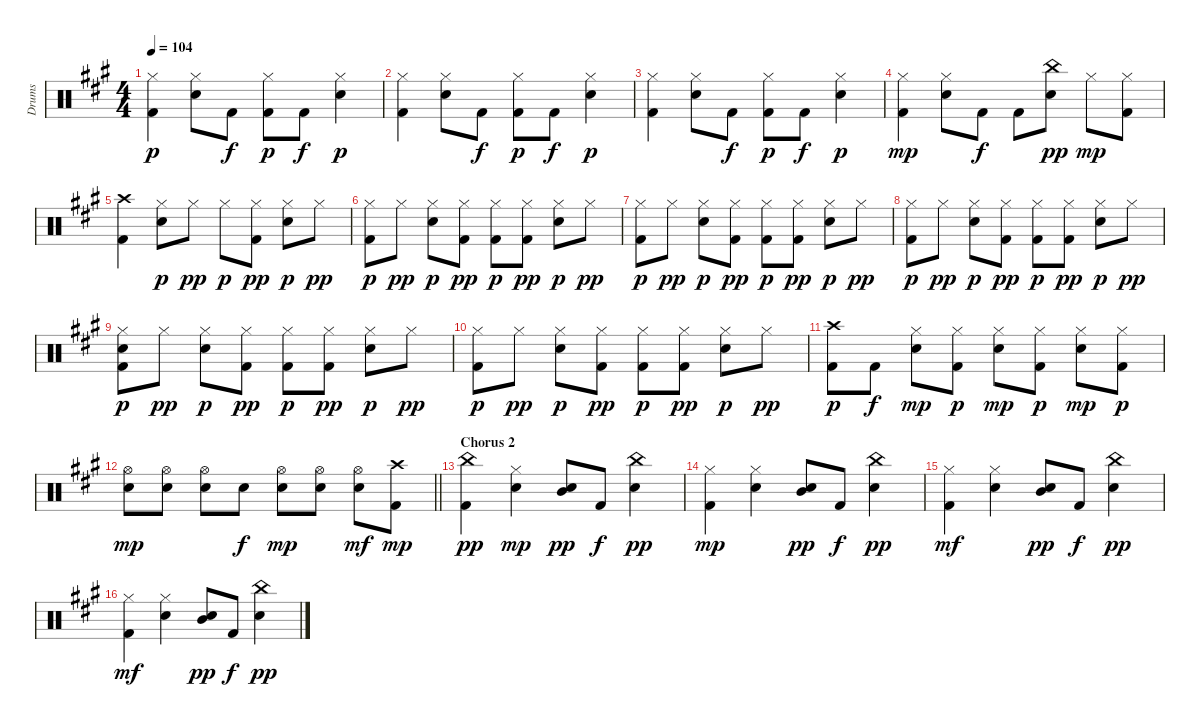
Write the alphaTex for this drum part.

\track ("Drums" "Drums") {instrument percussion}
\staff {score}
\articulation defaults
\ts (4 4)
\tempo 104
\clef neutral
\ks a
("Kick (hit) 2" "Hi-Hat (closed)").4{dy p} ("Electric Snare (hit)" "Hi-Hat (closed)").8 "Kick (hit) 2".8{dy f} ("Kick (hit) 2" "Hi-Hat (closed)").8{dy p} "Kick (hit) 2".8{dy f} ("Electric Snare (hit)" "Hi-Hat (closed)").4{dy p} |
("Kick (hit) 2" "Hi-Hat (closed)").4 ("Electric Snare (hit)" "Hi-Hat (closed)").8 "Kick (hit) 2".8{dy f} ("Kick (hit) 2" "Hi-Hat (closed)").8{dy p} "Kick (hit) 2".8{dy f} ("Electric Snare (hit)" "Hi-Hat (closed)").4{dy p} |
("Kick (hit) 2" "Hi-Hat (closed)").4 ("Electric Snare (hit)" "Hi-Hat (closed)").8 "Kick (hit) 2".8{dy f} ("Kick (hit) 2" "Hi-Hat (closed)").8{dy p} "Kick (hit) 2".8{dy f} ("Electric Snare (hit)" "Hi-Hat (closed)").4{dy p} |
("Kick (hit) 2" "Hi-Hat (closed)").4{dy mp} ("Electric Snare (hit)" "Hi-Hat (closed)").8 "Kick (hit) 2".8{dy f} "Kick (hit) 2".8 ("Electric Snare (hit)" "China (hit)").8{dy pp} "Hi-Hat (closed)".8{dy mp} ("Kick (hit) 2" "Hi-Hat (closed)").8 |
("Kick (hit) 2" "Crash high (hit)").4 ("Electric Snare (hit)" "Hi-Hat (closed)").8{dy p} "Hi-Hat (closed)".8{dy pp} "Hi-Hat (closed)".8{dy p} ("Kick (hit) 2" "Hi-Hat (closed)").8{dy pp} ("Electric Snare (hit)" "Hi-Hat (closed)").8{dy p} "Hi-Hat (closed)".8{dy pp} |
("Kick (hit) 2" "Hi-Hat (closed)").8{dy p} "Hi-Hat (closed)".8{dy pp} ("Electric Snare (hit)" "Hi-Hat (closed)").8{dy p} ("Kick (hit) 2" "Hi-Hat (closed)").8{dy pp} ("Kick (hit) 2" "Hi-Hat (closed)").8{dy p} ("Kick (hit) 2" "Hi-Hat (closed)").8{dy pp} ("Electric Snare (hit)" "Hi-Hat (closed)").8{dy p} "Hi-Hat (closed)".8{dy pp} |
("Kick (hit) 2" "Hi-Hat (closed)").8{dy p} "Hi-Hat (closed)".8{dy pp} ("Electric Snare (hit)" "Hi-Hat (closed)").8{dy p} ("Kick (hit) 2" "Hi-Hat (closed)").8{dy pp} ("Kick (hit) 2" "Hi-Hat (closed)").8{dy p} ("Kick (hit) 2" "Hi-Hat (closed)").8{dy pp} ("Electric Snare (hit)" "Hi-Hat (closed)").8{dy p} "Hi-Hat (closed)".8{dy pp} |
("Kick (hit) 2" "Hi-Hat (closed)").8{dy p} "Hi-Hat (closed)".8{dy pp} ("Electric Snare (hit)" "Hi-Hat (closed)").8{dy p} ("Kick (hit) 2" "Hi-Hat (closed)").8{dy pp} ("Kick (hit) 2" "Hi-Hat (closed)").8{dy p} ("Kick (hit) 2" "Hi-Hat (closed)").8{dy pp} ("Electric Snare (hit)" "Hi-Hat (closed)").8{dy p} "Hi-Hat (closed)".8{dy pp} |
("Electric Snare (hit)" "Hi-Hat (closed)" "Kick (hit) 2").8{dy p} "Hi-Hat (closed)".8{dy pp} ("Electric Snare (hit)" "Hi-Hat (closed)").8{dy p} ("Kick (hit) 2" "Hi-Hat (closed)").8{dy pp} ("Kick (hit) 2" "Hi-Hat (closed)").8{dy p} ("Kick (hit) 2" "Hi-Hat (closed)").8{dy pp} ("Electric Snare (hit)" "Hi-Hat (closed)").8{dy p} "Hi-Hat (closed)".8{dy pp} |
("Kick (hit) 2" "Hi-Hat (closed)").8{dy p} "Hi-Hat (closed)".8{dy pp} ("Electric Snare (hit)" "Hi-Hat (closed)").8{dy p} ("Kick (hit) 2" "Hi-Hat (closed)").8{dy pp} ("Kick (hit) 2" "Hi-Hat (closed)").8{dy p} ("Kick (hit) 2" "Hi-Hat (closed)").8{dy pp} ("Electric Snare (hit)" "Hi-Hat (closed)").8{dy p} "Hi-Hat (closed)".8{dy pp} |
("Kick (hit) 2" "Crash high (hit)").8{dy p} "Kick (hit) 2".8{dy f} ("Electric Snare (hit)" "Hi-Hat (closed)").8{dy mp} ("Kick (hit) 2" "Hi-Hat (closed)").8{dy p} ("Electric Snare (hit)" "Hi-Hat (closed)").8{dy mp} ("Kick (hit) 2" "Hi-Hat (closed)").8{dy p} ("Electric Snare (hit)" "Hi-Hat (closed)").8{dy mp} ("Kick (hit) 2" "Hi-Hat (closed)").8{dy p} |
\barLineRight lightlight
("Electric Snare (hit)" "Hi-Hat (open)").8{dy mp} ("Electric Snare (hit)" "Hi-Hat (open)").8 ("Electric Snare (hit)" "Hi-Hat (open)").8 "Electric Snare (hit)".8{dy f} ("Electric Snare (hit)" "Hi-Hat (open)").8{dy mp} ("Electric Snare (hit)" "Hi-Hat (open)").8 ("Electric Snare (hit)" "Hi-Hat (open)").8{dy mf} ("Kick (hit) 2" "Crash high (hit)").8{dy mp} |
\section ("" "Chorus 2")
("China (hit)" "Kick (hit) 2").4{dy pp} ("Electric Snare (hit)" "Hi-Hat (closed)").4{dy mp} ("Electric Snare (hit)" "Mid Tom (hit)").8{dy pp} "Kick (hit) 2".8{dy f} ("Electric Snare (hit)" "China (hit)").4{dy pp} |
("Hi-Hat (closed)" "Kick (hit) 2").4{dy mp} ("Electric Snare (hit)" "Hi-Hat (closed)").4 ("Electric Snare (hit)" "Mid Tom (hit)").8{dy pp} "Kick (hit) 2".8{dy f} ("Electric Snare (hit)" "China (hit)").4{dy pp} |
("Hi-Hat (closed)" "Kick (hit) 2").4{dy mf} ("Electric Snare (hit)" "Hi-Hat (closed)").4 ("Electric Snare (hit)" "Mid Tom (hit)").8{dy pp} "Kick (hit) 2".8{dy f} ("Electric Snare (hit)" "China (hit)").4{dy pp} |
("Hi-Hat (closed)" "Kick (hit) 2").4{dy mf} ("Electric Snare (hit)" "Hi-Hat (closed)").4 ("Electric Snare (hit)" "Mid Tom (hit)").8{dy pp} "Kick (hit) 2".8{dy f} ("Electric Snare (hit)" "China (hit)").4{dy pp}
